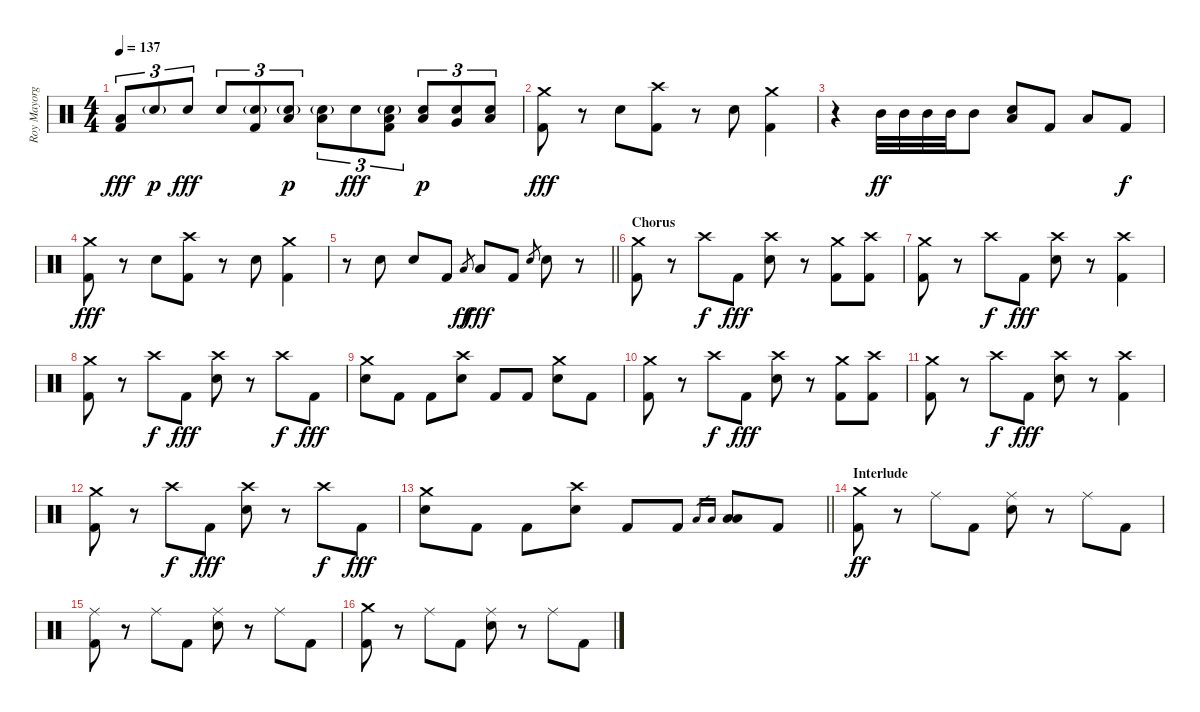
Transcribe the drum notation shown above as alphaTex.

\track ("Roy Mayorga (Drums)" "Roy Mayorg") {instrument percussion}
\staff {score}
\articulation defaults
\ts (4 4)
\tempo 137
\clef neutral
\ks c
("Low Tom (hit)" "Kick (hit) 2").8{tu (3 2) dy fff} "Electric Snare (hit)"{g}.8{tu (3 2) dy p} "Electric Snare (hit)".8{tu (3 2) dy fff} "Electric Snare (hit)".8{tu (3 2)} ("Electric Snare (hit)"{g} "Kick (hit) 2").8{tu (3 2)} ("Low Tom (hit)" "Electric Snare (hit)"{g}).8{tu (3 2) dy p} ("Low Floor Tom (hit)" "Electric Snare (hit)"{g}).8{tu (3 2)} "Electric Snare (hit)".8{tu (3 2) dy fff} ("Low Tom (hit)" "Electric Snare (hit)"{g} "Kick (hit) 2").8{tu (3 2)} ("Low Tom (hit)" "Electric Snare (hit)").8{tu (3 2) dy p} ("Very Low Tom (hit)" "Electric Snare (hit)").8{tu (3 2)} ("Low Floor Tom (hit)" "Electric Snare (hit)").8{tu (3 2)} |
("Crash medium (hit)" "Kick (hit) 2").8{dy fff} r.8 "Electric Snare (hit)".8 ("Crash high (hit)" "Kick (hit) 2").8 r.8 "Electric Snare (hit)".8 ("Crash medium (hit)" "Kick (hit) 2").4 |
r.4 "Mid Tom (hit)".32{dy ff} "Mid Tom (hit)".32 "Mid Tom (hit)".32 "Mid Tom (hit)".32 "Mid Tom (hit)".8 ("Low Tom (hit)" "Electric Snare (hit)").8 "Kick (hit) 2".8 "Low Floor Tom (hit)".8 "Kick (hit) 2".8{dy f} |
("Crash medium (hit)" "Kick (hit) 2").8{dy fff} r.8 "Electric Snare (hit)".8 ("Crash high (hit)" "Kick (hit) 2").8 r.8 "Electric Snare (hit)".8 ("Crash medium (hit)" "Kick (hit) 2").4 |
\barLineRight lightlight
r.8 "Electric Snare (hit)".8 "Electric Snare (hit)".8 "Kick (hit) 2".8 "Low Tom (hit)".8{gr dy ff} "Low Tom (hit)".8{dy fff} "Kick (hit) 2".8 "Electric Snare (hit)".8{gr} "Electric Snare (hit)".8 r.8 |
\section ("" "Chorus")
("Crash medium (hit)" "Kick (hit) 2").8 r.8 "Crash high (hit)".8{dy f} "Kick (hit) 2".8{dy fff} ("Crash high (hit)" "Electric Snare (hit)").8 r.8 ("Crash medium (hit)" "Kick (hit) 2").8 ("Crash high (hit)" "Kick (hit) 2").8 |
("Crash medium (hit)" "Kick (hit) 2").8 r.8 "Crash high (hit)".8{dy f} "Kick (hit) 2".8{dy fff} ("Crash high (hit)" "Electric Snare (hit)").8 r.8 ("Crash high (hit)" "Kick (hit) 2").4 |
("Crash medium (hit)" "Kick (hit) 2").8 r.8 "Crash high (hit)".8{dy f} "Kick (hit) 2".8{dy fff} ("Crash high (hit)" "Electric Snare (hit)").8 r.8 "Crash high (hit)".8{dy f} "Kick (hit) 2".8{dy fff} |
("Crash medium (hit)" "Electric Snare (hit)").8 "Kick (hit) 2".8 "Kick (hit) 2".8 ("Crash high (hit)" "Electric Snare (hit)").8 "Kick (hit) 2".8 "Kick (hit) 2".8 ("Crash medium (hit)" "Electric Snare (hit)").8 "Kick (hit) 2".8 |
("Crash medium (hit)" "Kick (hit) 2").8 r.8 "Crash high (hit)".8{dy f} "Kick (hit) 2".8{dy fff} ("Crash high (hit)" "Electric Snare (hit)").8 r.8 ("Crash medium (hit)" "Kick (hit) 2").8 ("Crash high (hit)" "Kick (hit) 2").8 |
("Crash medium (hit)" "Kick (hit) 2").8 r.8 "Crash high (hit)".8{dy f} "Kick (hit) 2".8{dy fff} ("Crash high (hit)" "Electric Snare (hit)").8 r.8 ("Crash high (hit)" "Kick (hit) 2").4 |
("Crash medium (hit)" "Kick (hit) 2").8 r.8 "Crash high (hit)".8{dy f} "Kick (hit) 2".8{dy fff} ("Crash high (hit)" "Electric Snare (hit)").8 r.8 "Crash high (hit)".8{dy f} "Kick (hit) 2".8{dy fff} |
\barLineRight lightlight
("Crash medium (hit)" "Electric Snare (hit)").8 "Kick (hit) 2".8 "Kick (hit) 2".8 ("Crash high (hit)" "Electric Snare (hit)").8 "Kick (hit) 2".8 "Kick (hit) 2".8 "Low Tom (hit)".16{gr} "Low Floor Tom (hit)".16{gr} ("Low Tom (hit)" "Low Floor Tom (hit)").8 "Kick (hit) 2".8 |
\section ("" "Interlude")
("Crash medium (hit)" "Kick (hit) 2").8{dy ff} r.8 "Ride (middle)".8 "Kick (hit) 2".8 ("Ride (middle)" "Electric Snare (hit)").8 r.8 "Ride (middle)".8 "Kick (hit) 2".8 |
("Ride (middle)" "Kick (hit) 2").8 r.8 "Ride (middle)".8 "Kick (hit) 2".8 ("Ride (middle)" "Electric Snare (hit)").8 r.8 "Ride (middle)".8 "Kick (hit) 2".8 |
("Crash medium (hit)" "Kick (hit) 2").8 r.8 "Ride (middle)".8 "Kick (hit) 2".8 ("Ride (middle)" "Electric Snare (hit)").8 r.8 "Ride (middle)".8 "Kick (hit) 2".8
